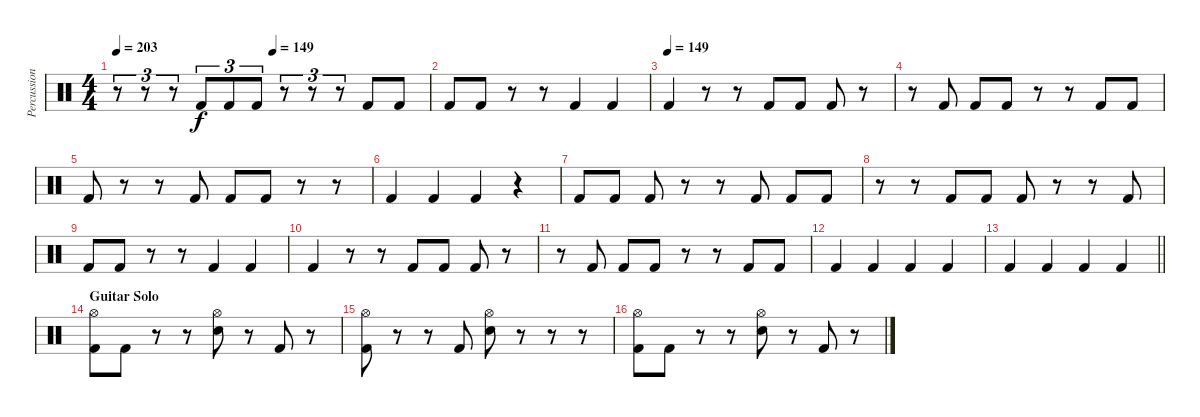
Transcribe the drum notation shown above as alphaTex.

\track ("Percussion" "Percussion") {instrument percussion}
\staff {score}
\articulation defaults
\ts (4 4)
\tempo 203
\tempo (149 0.5)
\clef neutral
\ks c
r.8{tu (3 2) dy f} r.8{tu (3 2)} r.8{tu (3 2)} "Kick (hit) 2".8{tu (3 2)} "Kick (hit) 2".8{tu (3 2)} "Kick (hit) 2".8{tu (3 2)} r.8{tu (3 2)} r.8{tu (3 2)} r.8{tu (3 2)} "Kick (hit) 2".8 "Kick (hit) 2".8 |
"Kick (hit) 2".8 "Kick (hit) 2".8 r.8 r.8 "Kick (hit) 2".4 "Kick (hit) 2".4 |
\tempo (149)
"Kick (hit) 2".4 r.8 r.8 "Kick (hit) 2".8 "Kick (hit) 2".8 "Kick (hit) 2".8 r.8 |
r.8 "Kick (hit) 2".8 "Kick (hit) 2".8 "Kick (hit) 2".8 r.8 r.8 "Kick (hit) 2".8 "Kick (hit) 2".8 |
"Kick (hit) 2".8 r.8 r.8 "Kick (hit) 2".8 "Kick (hit) 2".8 "Kick (hit) 2".8 r.8 r.8 |
"Kick (hit) 2".4 "Kick (hit) 2".4 "Kick (hit) 2".4 r.4 |
"Kick (hit) 2".8 "Kick (hit) 2".8 "Kick (hit) 2".8 r.8 r.8 "Kick (hit) 2".8 "Kick (hit) 2".8 "Kick (hit) 2".8 |
r.8 r.8 "Kick (hit) 2".8 "Kick (hit) 2".8 "Kick (hit) 2".8 r.8 r.8 "Kick (hit) 2".8 |
"Kick (hit) 2".8 "Kick (hit) 2".8 r.8 r.8 "Kick (hit) 2".4 "Kick (hit) 2".4 |
"Kick (hit) 2".4 r.8 r.8 "Kick (hit) 2".8 "Kick (hit) 2".8 "Kick (hit) 2".8 r.8 |
r.8 "Kick (hit) 2".8 "Kick (hit) 2".8 "Kick (hit) 2".8 r.8 r.8 "Kick (hit) 2".8 "Kick (hit) 2".8 |
"Kick (hit) 2".4 "Kick (hit) 2".4 "Kick (hit) 2".4 "Kick (hit) 2".4 |
\barLineRight lightlight "Kick (hit) 2".4 "Kick (hit) 2".4 "Kick (hit) 2".4 "Kick (hit) 2".4
|
\section ("" "Guitar Solo")
("Hi-Hat (open)" "Kick (hit) 2").8 "Kick (hit) 2".8 r.8 r.8 ("Hi-Hat (open)" "Snare (hit) 2").8 r.8 "Kick (hit) 2".8 r.8 |
("Hi-Hat (open)" "Kick (hit) 2").8 r.8 r.8 "Kick (hit) 2".8 ("Hi-Hat (open)" "Snare (hit) 2").8 r.8 r.8 r.8 |
("Hi-Hat (open)" "Kick (hit) 2").8 "Kick (hit) 2".8 r.8 r.8 ("Hi-Hat (open)" "Snare (hit) 2").8 r.8 "Kick (hit) 2".8 r.8
